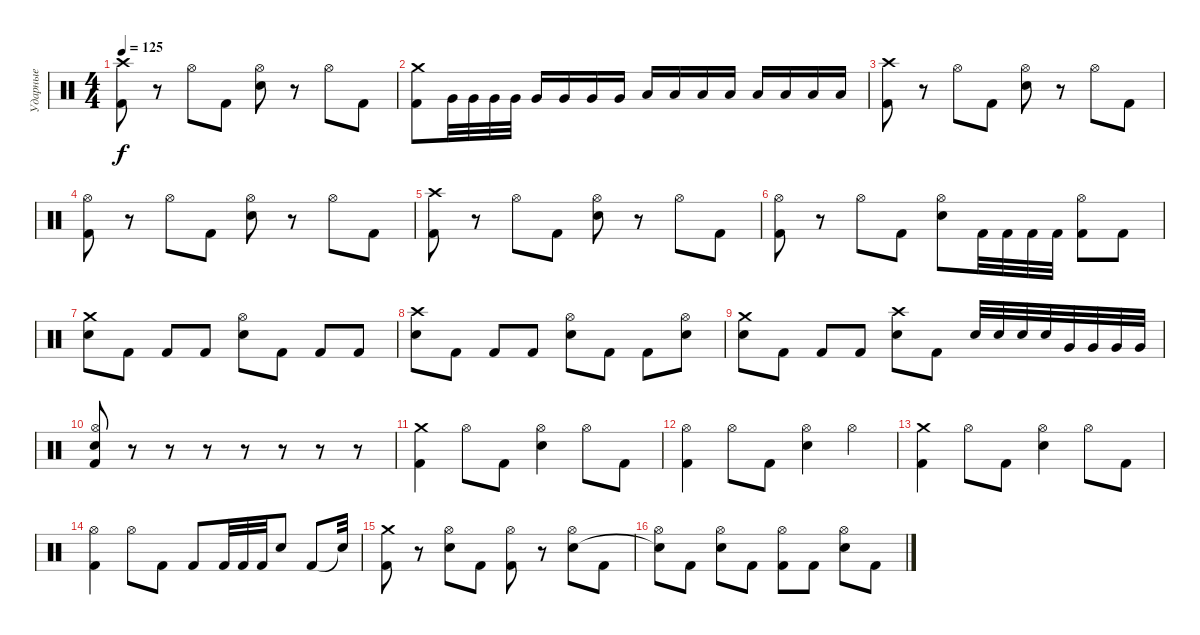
\track ("Ударные" "Ударные") {instrument percussion}
\staff {score}
\articulation defaults
\ts (4 4)
\tempo 125
\clef neutral
\ks c
("Crash high (hit)" "Kick (hit) 2").8{dy f} r.8 "Hi-Hat (open)".8 "Kick (hit) 2".8 ("Hi-Hat (open)" "Electric Snare (hit)").8 r.8 "Hi-Hat (open)".8 "Kick (hit) 2".8 |
("Crash medium (hit)" "Kick (hit) 2").8 "Very Low Tom (hit)".32 "Very Low Tom (hit)".32 "Very Low Tom (hit)".32 "Very Low Tom (hit)".32 "Very Low Tom (hit)".16 "Very Low Tom (hit)".16 "Very Low Tom (hit)".16 "Very Low Tom (hit)".16 "Low Floor Tom (hit)".16 "Low Floor Tom (hit)".16 "Low Floor Tom (hit)".16 "Low Floor Tom (hit)".16 "Low Floor Tom (hit)".16 "Low Floor Tom (hit)".16 "Low Floor Tom (hit)".16 "Low Floor Tom (hit)".16 |
("Crash high (hit)" "Kick (hit) 2").8 r.8 "Hi-Hat (open)".8 "Kick (hit) 2".8 ("Hi-Hat (open)" "Electric Snare (hit)").8 r.8 "Hi-Hat (open)".8 "Kick (hit) 2".8 |
("Hi-Hat (open)" "Kick (hit) 2").8 r.8 "Hi-Hat (open)".8 "Kick (hit) 2".8 ("Hi-Hat (open)" "Electric Snare (hit)").8 r.8 "Hi-Hat (open)".8 "Kick (hit) 2".8 |
("Crash high (hit)" "Kick (hit) 2").8 r.8 "Hi-Hat (open)".8 "Kick (hit) 2".8 ("Hi-Hat (open)" "Electric Snare (hit)").8 r.8 "Hi-Hat (open)".8 "Kick (hit) 2".8 |
("Hi-Hat (open)" "Kick (hit) 2").8 r.8 "Hi-Hat (open)".8 "Kick (hit) 2".8 ("Hi-Hat (open)" "Electric Snare (hit)").8 "Kick (hit) 2".32 "Kick (hit) 2".32 "Kick (hit) 2".32 "Kick (hit) 2".32 ("Hi-Hat (open)" "Kick (hit) 2").8 "Kick (hit) 2".8 |
("Crash medium (hit)" "Electric Snare (hit)").8 "Kick (hit) 2".8 "Kick (hit) 2".8 "Kick (hit) 2".8 ("Hi-Hat (open)" "Electric Snare (hit)").8 "Kick (hit) 2".8 "Kick (hit) 2".8 "Kick (hit) 2".8 |
("Crash high (hit)" "Electric Snare (hit)").8 "Kick (hit) 2".8 "Kick (hit) 2".8 "Kick (hit) 2".8 ("Hi-Hat (open)" "Electric Snare (hit)").8 "Kick (hit) 2".8 "Kick (hit) 2".8 ("Hi-Hat (open)" "Electric Snare (hit)").8 |
("Crash medium (hit)" "Electric Snare (hit)").8 "Kick (hit) 2".8 "Kick (hit) 2".8 "Kick (hit) 2".8 ("Crash high (hit)" "Electric Snare (hit)").8 "Kick (hit) 2".8 "Electric Snare (hit)".32 "Electric Snare (hit)".32 "Electric Snare (hit)".32 "Electric Snare (hit)".32 "Very Low Tom (hit)".32 "Very Low Tom (hit)".32 "Very Low Tom (hit)".32 "Very Low Tom (hit)".32 |
("Hi-Hat (open)" "Electric Snare (hit)" "Kick (hit) 2").8 r.8 r.8 r.8 r.8 r.8 r.8 r.8 |
("Crash medium (hit)" "Kick (hit) 2").4 "Hi-Hat (open)".8 "Kick (hit) 2".8 ("Hi-Hat (open)" "Electric Snare (hit)").4 "Hi-Hat (open)".8 "Kick (hit) 2".8 |
("Hi-Hat (open)" "Kick (hit) 2").4 "Hi-Hat (open)".8 "Kick (hit) 2".8 ("Hi-Hat (open)" "Electric Snare (hit)").4 "Hi-Hat (open)".4 |
("Crash medium (hit)" "Kick (hit) 2").4 "Hi-Hat (open)".8 "Kick (hit) 2".8 ("Hi-Hat (open)" "Electric Snare (hit)").4 "Hi-Hat (open)".8 "Kick (hit) 2".8 |
("Hi-Hat (open)" "Kick (hit) 2").4 "Hi-Hat (open)".8 "Kick (hit) 2".8 "Kick (hit) 2".8 "Kick (hit) 2".32 "Kick (hit) 2".32 "Kick (hit) 2".32 "Electric Snare (hit)".8 "Kick (hit) 2".8 "Snare (hit)"{t}.32 |
("Crash medium (hit)" "Kick (hit) 2").8 r.8 ("Hi-Hat (open)" "Electric Snare (hit)").8 "Kick (hit) 2".8 ("Hi-Hat (open)" "Kick (hit) 2").8 r.8 ("Hi-Hat (open)" "Electric Snare (hit)").8 "Kick (hit) 2".8 |
("Hi-Hat (open)" "Snare (hit)"{t}).8 "Kick (hit) 2".8 ("Hi-Hat (open)" "Electric Snare (hit)").8 "Kick (hit) 2".8 ("Hi-Hat (open)" "Kick (hit) 2").8 "Kick (hit) 2".8 ("Hi-Hat (open)" "Electric Snare (hit)").8 "Kick (hit) 2".8
